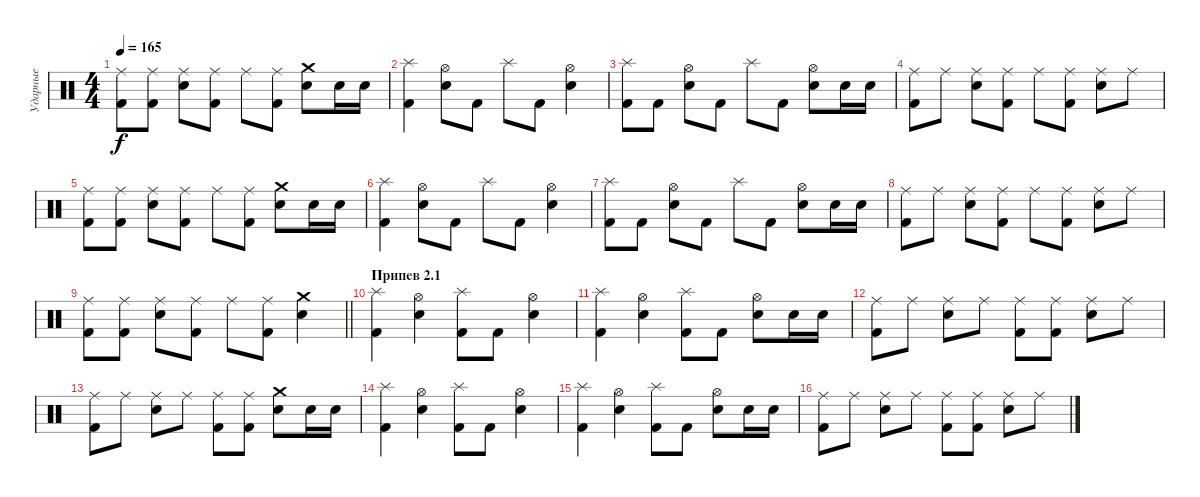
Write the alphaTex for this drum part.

\track ("Ударные" "Ударные") {instrument percussion}
\staff {score}
\articulation defaults
\ts (4 4)
\tempo 165
\clef neutral
\ks c
("Ride (middle)" "Kick (hit) 2").8{dy f} ("Ride (middle)" "Kick (hit) 2").8 ("Ride (middle)" "Electric Snare (hit)").8 ("Ride (middle)" "Kick (hit) 2").8 "Ride (middle)".8 ("Ride (middle)" "Kick (hit) 2").8 ("Crash medium (hit)" "Electric Snare (hit)").8 "Electric Snare (hit)".16 "Electric Snare (hit)".16 |
("Splash (hit)" "Kick (hit) 2").4 ("Hi-Hat (open)" "Electric Snare (hit)").8 "Kick (hit) 2".8 "Splash (hit)".8 "Kick (hit) 2".8 ("Hi-Hat (open)" "Electric Snare (hit)").4 |
("Splash (hit)" "Kick (hit) 2").8 "Kick (hit) 2".8 ("Hi-Hat (open)" "Electric Snare (hit)").8 "Kick (hit) 2".8 "Splash (hit)".8 "Kick (hit) 2".8 ("Hi-Hat (open)" "Electric Snare (hit)").8 "Electric Snare (hit)".16 "Electric Snare (hit)".16 |
("Ride (middle)" "Kick (hit) 2").8 "Ride (middle)".8 ("Ride (middle)" "Electric Snare (hit)").8 ("Ride (middle)" "Kick (hit) 2").8 "Ride (middle)".8 ("Ride (middle)" "Kick (hit) 2").8 ("Ride (middle)" "Electric Snare (hit)").8 "Ride (middle)".8 |
("Ride (middle)" "Kick (hit) 2").8 ("Ride (middle)" "Kick (hit) 2").8 ("Ride (middle)" "Electric Snare (hit)").8 ("Ride (middle)" "Kick (hit) 2").8 "Ride (middle)".8 ("Ride (middle)" "Kick (hit) 2").8 ("Crash medium (hit)" "Electric Snare (hit)").8 "Electric Snare (hit)".16 "Electric Snare (hit)".16 |
("Splash (hit)" "Kick (hit) 2").4 ("Hi-Hat (open)" "Electric Snare (hit)").8 "Kick (hit) 2".8 "Splash (hit)".8 "Kick (hit) 2".8 ("Hi-Hat (open)" "Electric Snare (hit)").4 |
("Splash (hit)" "Kick (hit) 2").8 "Kick (hit) 2".8 ("Hi-Hat (open)" "Electric Snare (hit)").8 "Kick (hit) 2".8 "Splash (hit)".8 "Kick (hit) 2".8 ("Hi-Hat (open)" "Electric Snare (hit)").8 "Electric Snare (hit)".16 "Electric Snare (hit)".16 |
("Ride (middle)" "Kick (hit) 2").8 "Ride (middle)".8 ("Ride (middle)" "Electric Snare (hit)").8 ("Ride (middle)" "Kick (hit) 2").8 "Ride (middle)".8 ("Ride (middle)" "Kick (hit) 2").8 ("Ride (middle)" "Electric Snare (hit)").8 "Ride (middle)".8 |
\barLineRight lightlight
("Ride (middle)" "Kick (hit) 2").8 ("Ride (middle)" "Kick (hit) 2").8 ("Ride (middle)" "Electric Snare (hit)").8 ("Ride (middle)" "Kick (hit) 2").8 "Ride (middle)".8 ("Ride (middle)" "Kick (hit) 2").8 ("Crash medium (hit)" "Electric Snare (hit)").4 |
\section ("" "Припев 2.1")
("Splash (hit)" "Kick (hit) 2").4 ("Hi-Hat (open)" "Electric Snare (hit)").4 ("Splash (hit)" "Kick (hit) 2").8 "Kick (hit) 2".8 ("Hi-Hat (open)" "Electric Snare (hit)").4 |
("Splash (hit)" "Kick (hit) 2").4 ("Hi-Hat (open)" "Electric Snare (hit)").4 ("Splash (hit)" "Kick (hit) 2").8 "Kick (hit) 2".8 ("Hi-Hat (open)" "Electric Snare (hit)").8 "Electric Snare (hit)".16 "Electric Snare (hit)".16 |
("Ride (middle)" "Kick (hit) 2").8 "Ride (middle)".8 ("Ride (middle)" "Electric Snare (hit)").8 "Ride (middle)".8 ("Ride (middle)" "Kick (hit) 2").8 ("Ride (middle)" "Kick (hit) 2").8 ("Ride (middle)" "Electric Snare (hit)").8 "Ride (middle)".8 |
("Ride (middle)" "Kick (hit) 2").8 "Ride (middle)".8 ("Ride (middle)" "Electric Snare (hit)").8 "Ride (middle)".8 ("Ride (middle)" "Kick (hit) 2").8 ("Ride (middle)" "Kick (hit) 2").8 ("Crash medium (hit)" "Electric Snare (hit)").8 "Electric Snare (hit)".16 "Electric Snare (hit)".16 |
("Splash (hit)" "Kick (hit) 2").4 ("Hi-Hat (open)" "Electric Snare (hit)").4 ("Splash (hit)" "Kick (hit) 2").8 "Kick (hit) 2".8 ("Hi-Hat (open)" "Electric Snare (hit)").4 |
("Splash (hit)" "Kick (hit) 2").4 ("Hi-Hat (open)" "Electric Snare (hit)").4 ("Splash (hit)" "Kick (hit) 2").8 "Kick (hit) 2".8 ("Hi-Hat (open)" "Electric Snare (hit)").8 "Electric Snare (hit)".16 "Electric Snare (hit)".16 |
("Ride (middle)" "Kick (hit) 2").8 "Ride (middle)".8 ("Ride (middle)" "Electric Snare (hit)").8 "Ride (middle)".8 ("Ride (middle)" "Kick (hit) 2").8 ("Ride (middle)" "Kick (hit) 2").8 ("Ride (middle)" "Electric Snare (hit)").8 "Ride (middle)".8
